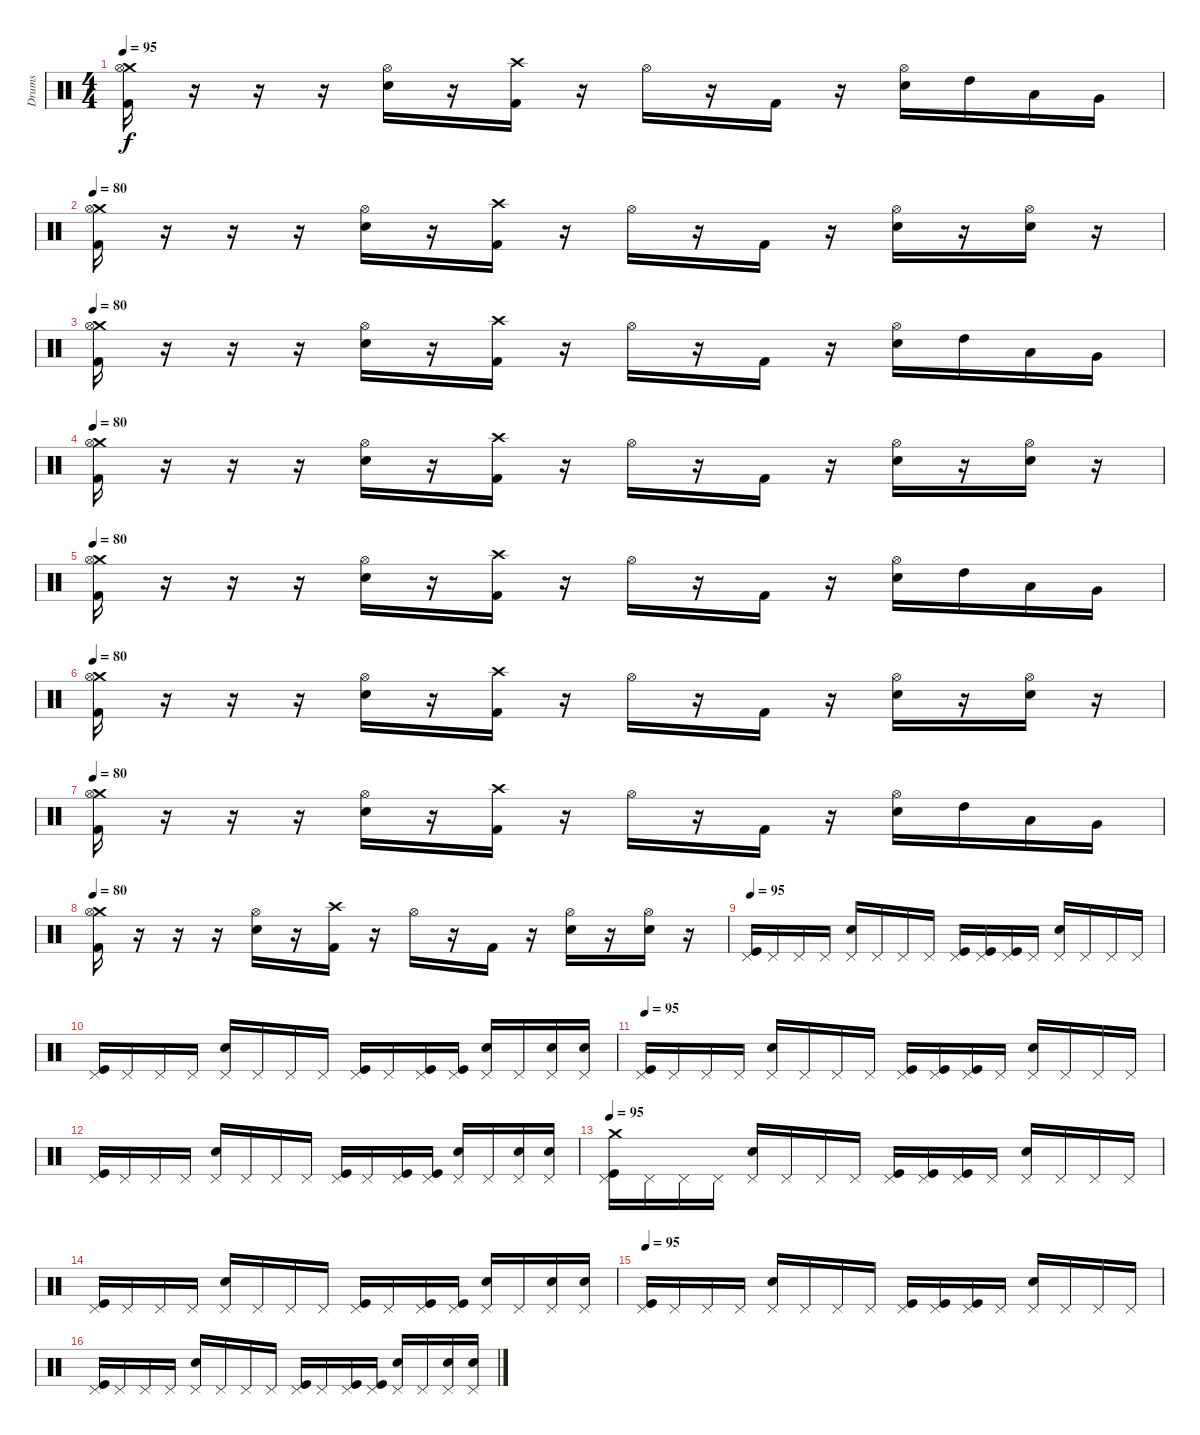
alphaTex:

\track ("Drums" "Drums") {instrument percussion}
\staff {score}
\articulation defaults
\ts (4 4)
\tempo 95
\tempo 80
\tempo 95
\clef neutral
\ks c
("Crash medium (hit)" "Hi-Hat (open)" "Kick (hit) 2").16{dy f} r.16 r.16 r.16 ("Hi-Hat (open)" "Electric Snare (hit)").16 r.16 ("Crash high (hit)" "Kick (hit) 2").16 r.16 "Hi-Hat (open)".16 r.16 "Kick (hit) 2".16 r.16 ("Hi-Hat (open)" "Electric Snare (hit)").16 "High Tom (hit)".16 "Low Tom (hit)".16 "Very Low Tom (hit)".16 |
\tempo 80
("Crash medium (hit)" "Hi-Hat (open)" "Kick (hit) 2").16 r.16 r.16 r.16 ("Hi-Hat (open)" "Electric Snare (hit)").16 r.16 ("Crash high (hit)" "Kick (hit) 2").16 r.16 "Hi-Hat (open)".16 r.16 "Kick (hit) 2".16 r.16 ("Hi-Hat (open)" "Electric Snare (hit)").16 r.16 ("Hi-Hat (open)" "Electric Snare (hit)").16 r.16 |
\tempo 80
("Crash medium (hit)" "Hi-Hat (open)" "Kick (hit) 2").16 r.16 r.16 r.16 ("Hi-Hat (open)" "Electric Snare (hit)").16 r.16 ("Crash high (hit)" "Kick (hit) 2").16 r.16 "Hi-Hat (open)".16 r.16 "Kick (hit) 2".16 r.16 ("Hi-Hat (open)" "Electric Snare (hit)").16 "High Tom (hit)".16 "Low Tom (hit)".16 "Very Low Tom (hit)".16 |
\tempo 80
("Crash medium (hit)" "Hi-Hat (open)" "Kick (hit) 2").16 r.16 r.16 r.16 ("Hi-Hat (open)" "Electric Snare (hit)").16 r.16 ("Crash high (hit)" "Kick (hit) 2").16 r.16 "Hi-Hat (open)".16 r.16 "Kick (hit) 2".16 r.16 ("Hi-Hat (open)" "Electric Snare (hit)").16 r.16 ("Hi-Hat (open)" "Electric Snare (hit)").16 r.16 |
\tempo 80
("Crash medium (hit)" "Hi-Hat (open)" "Kick (hit) 2").16 r.16 r.16 r.16 ("Hi-Hat (open)" "Electric Snare (hit)").16 r.16 ("Crash high (hit)" "Kick (hit) 2").16 r.16 "Hi-Hat (open)".16 r.16 "Kick (hit) 2".16 r.16 ("Hi-Hat (open)" "Electric Snare (hit)").16 "High Tom (hit)".16 "Low Tom (hit)".16 "Very Low Tom (hit)".16 |
\tempo 80
("Crash medium (hit)" "Hi-Hat (open)" "Kick (hit) 2").16 r.16 r.16 r.16 ("Hi-Hat (open)" "Electric Snare (hit)").16 r.16 ("Crash high (hit)" "Kick (hit) 2").16 r.16 "Hi-Hat (open)".16 r.16 "Kick (hit) 2".16 r.16 ("Hi-Hat (open)" "Electric Snare (hit)").16 r.16 ("Hi-Hat (open)" "Electric Snare (hit)").16 r.16 |
\tempo 80
("Crash medium (hit)" "Hi-Hat (open)" "Kick (hit) 2").16 r.16 r.16 r.16 ("Hi-Hat (open)" "Electric Snare (hit)").16 r.16 ("Crash high (hit)" "Kick (hit) 2").16 r.16 "Hi-Hat (open)".16 r.16 "Kick (hit) 2".16 r.16 ("Hi-Hat (open)" "Electric Snare (hit)").16 "High Tom (hit)".16 "Low Tom (hit)".16 "Very Low Tom (hit)".16 |
\tempo 80
("Crash medium (hit)" "Hi-Hat (open)" "Kick (hit) 2").16 r.16 r.16 r.16 ("Hi-Hat (open)" "Electric Snare (hit)").16 r.16 ("Crash high (hit)" "Kick (hit) 2").16 r.16 "Hi-Hat (open)".16 r.16 "Kick (hit) 2".16 r.16 ("Hi-Hat (open)" "Electric Snare (hit)").16 r.16 ("Hi-Hat (open)" "Electric Snare (hit)").16 r.16 |
\tempo 95
("Pedal Hi-Hat (hit)" "Kick (hit)").16 "Pedal Hi-Hat (hit)".16 "Pedal Hi-Hat (hit)".16 "Pedal Hi-Hat (hit)".16 ("Pedal Hi-Hat (hit)" "Electric Snare (hit)").16 "Pedal Hi-Hat (hit)".16 "Pedal Hi-Hat (hit)".16 "Pedal Hi-Hat (hit)".16 ("Pedal Hi-Hat (hit)" "Kick (hit)").16 ("Pedal Hi-Hat (hit)" "Kick (hit)").16 ("Pedal Hi-Hat (hit)" "Kick (hit)").16 "Pedal Hi-Hat (hit)".16 ("Pedal Hi-Hat (hit)" "Electric Snare (hit)").16 "Pedal Hi-Hat (hit)".16 "Pedal Hi-Hat (hit)".16 "Pedal Hi-Hat (hit)".16 |
("Pedal Hi-Hat (hit)" "Kick (hit)").16 "Pedal Hi-Hat (hit)".16 "Pedal Hi-Hat (hit)".16 "Pedal Hi-Hat (hit)".16 ("Pedal Hi-Hat (hit)" "Electric Snare (hit)").16 "Pedal Hi-Hat (hit)".16 "Pedal Hi-Hat (hit)".16 "Pedal Hi-Hat (hit)".16 ("Pedal Hi-Hat (hit)" "Kick (hit)").16 "Pedal Hi-Hat (hit)".16 ("Pedal Hi-Hat (hit)" "Kick (hit)").16 ("Pedal Hi-Hat (hit)" "Kick (hit)").16 ("Pedal Hi-Hat (hit)" "Electric Snare (hit)").16 "Pedal Hi-Hat (hit)".16 ("Pedal Hi-Hat (hit)" "Electric Snare (hit)").16 ("Pedal Hi-Hat (hit)" "Electric Snare (hit)").16 |
\tempo 95
("Pedal Hi-Hat (hit)" "Kick (hit)").16 "Pedal Hi-Hat (hit)".16 "Pedal Hi-Hat (hit)".16 "Pedal Hi-Hat (hit)".16 ("Pedal Hi-Hat (hit)" "Electric Snare (hit)").16 "Pedal Hi-Hat (hit)".16 "Pedal Hi-Hat (hit)".16 "Pedal Hi-Hat (hit)".16 ("Pedal Hi-Hat (hit)" "Kick (hit)").16 ("Pedal Hi-Hat (hit)" "Kick (hit)").16 ("Pedal Hi-Hat (hit)" "Kick (hit)").16 "Pedal Hi-Hat (hit)".16 ("Pedal Hi-Hat (hit)" "Electric Snare (hit)").16 "Pedal Hi-Hat (hit)".16 "Pedal Hi-Hat (hit)".16 "Pedal Hi-Hat (hit)".16 |
("Pedal Hi-Hat (hit)" "Kick (hit)").16 "Pedal Hi-Hat (hit)".16 "Pedal Hi-Hat (hit)".16 "Pedal Hi-Hat (hit)".16 ("Pedal Hi-Hat (hit)" "Electric Snare (hit)").16 "Pedal Hi-Hat (hit)".16 "Pedal Hi-Hat (hit)".16 "Pedal Hi-Hat (hit)".16 ("Pedal Hi-Hat (hit)" "Kick (hit)").16 "Pedal Hi-Hat (hit)".16 ("Pedal Hi-Hat (hit)" "Kick (hit)").16 ("Pedal Hi-Hat (hit)" "Kick (hit)").16 ("Pedal Hi-Hat (hit)" "Electric Snare (hit)").16 "Pedal Hi-Hat (hit)".16 ("Pedal Hi-Hat (hit)" "Electric Snare (hit)").16 ("Pedal Hi-Hat (hit)" "Electric Snare (hit)").16 |
\tempo 95
("Pedal Hi-Hat (hit)" "Crash medium (hit)" "Kick (hit)").16 "Pedal Hi-Hat (hit)".16 "Pedal Hi-Hat (hit)".16 "Pedal Hi-Hat (hit)".16 ("Pedal Hi-Hat (hit)" "Electric Snare (hit)").16 "Pedal Hi-Hat (hit)".16 "Pedal Hi-Hat (hit)".16 "Pedal Hi-Hat (hit)".16 ("Pedal Hi-Hat (hit)" "Kick (hit)").16 ("Pedal Hi-Hat (hit)" "Kick (hit)").16 ("Pedal Hi-Hat (hit)" "Kick (hit)").16 "Pedal Hi-Hat (hit)".16 ("Pedal Hi-Hat (hit)" "Electric Snare (hit)").16 "Pedal Hi-Hat (hit)".16 "Pedal Hi-Hat (hit)".16 "Pedal Hi-Hat (hit)".16 |
("Pedal Hi-Hat (hit)" "Kick (hit)").16 "Pedal Hi-Hat (hit)".16 "Pedal Hi-Hat (hit)".16 "Pedal Hi-Hat (hit)".16 ("Pedal Hi-Hat (hit)" "Electric Snare (hit)").16 "Pedal Hi-Hat (hit)".16 "Pedal Hi-Hat (hit)".16 "Pedal Hi-Hat (hit)".16 ("Pedal Hi-Hat (hit)" "Kick (hit)").16 "Pedal Hi-Hat (hit)".16 ("Pedal Hi-Hat (hit)" "Kick (hit)").16 ("Pedal Hi-Hat (hit)" "Kick (hit)").16 ("Pedal Hi-Hat (hit)" "Electric Snare (hit)").16 "Pedal Hi-Hat (hit)".16 ("Pedal Hi-Hat (hit)" "Electric Snare (hit)").16 ("Pedal Hi-Hat (hit)" "Electric Snare (hit)").16 |
\tempo 95
("Pedal Hi-Hat (hit)" "Kick (hit)").16 "Pedal Hi-Hat (hit)".16 "Pedal Hi-Hat (hit)".16 "Pedal Hi-Hat (hit)".16 ("Pedal Hi-Hat (hit)" "Electric Snare (hit)").16 "Pedal Hi-Hat (hit)".16 "Pedal Hi-Hat (hit)".16 "Pedal Hi-Hat (hit)".16 ("Pedal Hi-Hat (hit)" "Kick (hit)").16 ("Pedal Hi-Hat (hit)" "Kick (hit)").16 ("Pedal Hi-Hat (hit)" "Kick (hit)").16 "Pedal Hi-Hat (hit)".16 ("Pedal Hi-Hat (hit)" "Electric Snare (hit)").16 "Pedal Hi-Hat (hit)".16 "Pedal Hi-Hat (hit)".16 "Pedal Hi-Hat (hit)".16 |
("Pedal Hi-Hat (hit)" "Kick (hit)").16 "Pedal Hi-Hat (hit)".16 "Pedal Hi-Hat (hit)".16 "Pedal Hi-Hat (hit)".16 ("Pedal Hi-Hat (hit)" "Electric Snare (hit)").16 "Pedal Hi-Hat (hit)".16 "Pedal Hi-Hat (hit)".16 "Pedal Hi-Hat (hit)".16 ("Pedal Hi-Hat (hit)" "Kick (hit)").16 "Pedal Hi-Hat (hit)".16 ("Pedal Hi-Hat (hit)" "Kick (hit)").16 ("Pedal Hi-Hat (hit)" "Kick (hit)").16 ("Pedal Hi-Hat (hit)" "Electric Snare (hit)").16 "Pedal Hi-Hat (hit)".16 ("Pedal Hi-Hat (hit)" "Electric Snare (hit)").16 ("Pedal Hi-Hat (hit)" "Electric Snare (hit)").16
